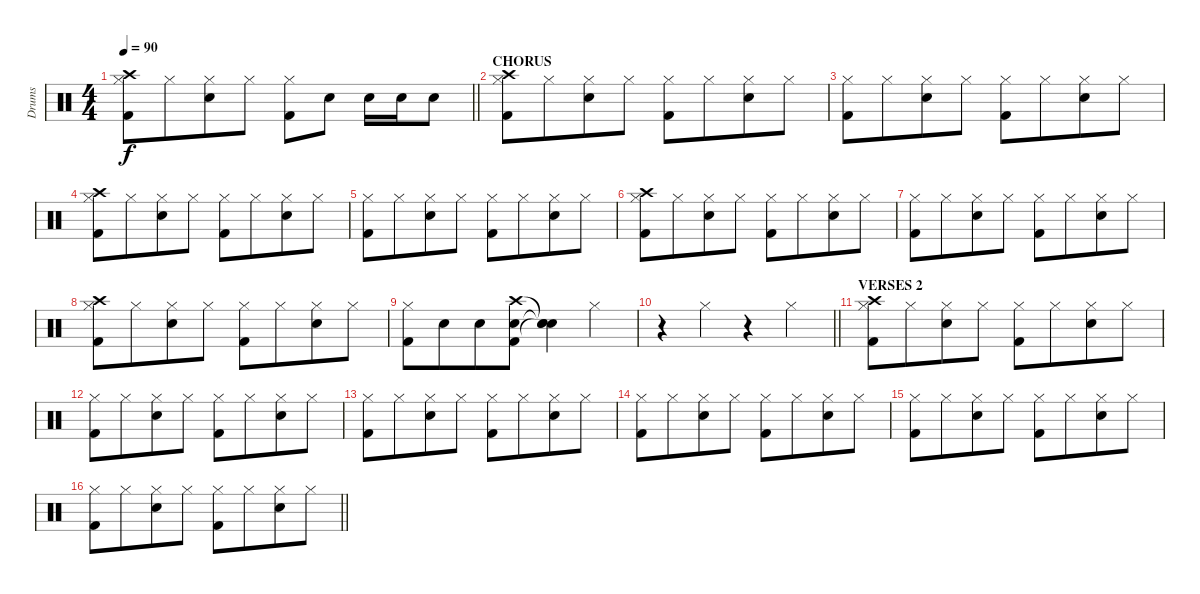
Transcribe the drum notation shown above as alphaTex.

\track ("Drums" "Drums") {instrument percussion}
\staff {score}
\articulation defaults
\ts (4 4)
\tempo 90
\clef neutral
\barLineRight lightlight
\ks c
("Crash high (hit)" "Hi-Hat (closed)" "Kick (hit) 2").8{dy f} "Hi-Hat (closed)".8{beam merge} ("Hi-Hat (closed)" "Electric Snare (hit)").8 "Hi-Hat (closed)".8 ("Hi-Hat (closed)" "Kick (hit) 2").8 "Electric Snare (hit)".8 "Electric Snare (hit)".16 "Electric Snare (hit)".16 "Electric Snare (hit)".8 |
\section ("" "CHORUS")
("Crash high (hit)" "Hi-Hat (closed)" "Kick (hit) 2").8 "Hi-Hat (closed)".8{beam merge} ("Hi-Hat (closed)" "Electric Snare (hit)").8 "Hi-Hat (closed)".8 ("Hi-Hat (closed)" "Kick (hit) 2").8 "Hi-Hat (closed)".8{beam merge} ("Hi-Hat (closed)" "Electric Snare (hit)").8 "Hi-Hat (closed)".8 |
("Hi-Hat (closed)" "Kick (hit) 2").8 "Hi-Hat (closed)".8{beam merge} ("Hi-Hat (closed)" "Electric Snare (hit)").8 "Hi-Hat (closed)".8 ("Hi-Hat (closed)" "Kick (hit) 2").8 "Hi-Hat (closed)".8{beam merge} ("Hi-Hat (closed)" "Electric Snare (hit)").8 "Hi-Hat (closed)".8 |
("Crash high (hit)" "Hi-Hat (closed)" "Kick (hit) 2").8 "Hi-Hat (closed)".8{beam merge} ("Hi-Hat (closed)" "Electric Snare (hit)").8 "Hi-Hat (closed)".8 ("Hi-Hat (closed)" "Kick (hit) 2").8 "Hi-Hat (closed)".8{beam merge} ("Hi-Hat (closed)" "Electric Snare (hit)").8 "Hi-Hat (closed)".8 |
("Hi-Hat (closed)" "Kick (hit) 2").8 "Hi-Hat (closed)".8{beam merge} ("Hi-Hat (closed)" "Electric Snare (hit)").8 "Hi-Hat (closed)".8 ("Hi-Hat (closed)" "Kick (hit) 2").8 "Hi-Hat (closed)".8{beam merge} ("Hi-Hat (closed)" "Electric Snare (hit)").8 "Hi-Hat (closed)".8 |
("Crash high (hit)" "Hi-Hat (closed)" "Kick (hit) 2").8 "Hi-Hat (closed)".8{beam merge} ("Hi-Hat (closed)" "Electric Snare (hit)").8 "Hi-Hat (closed)".8 ("Hi-Hat (closed)" "Kick (hit) 2").8 "Hi-Hat (closed)".8{beam merge} ("Hi-Hat (closed)" "Electric Snare (hit)").8 "Hi-Hat (closed)".8 |
("Hi-Hat (closed)" "Kick (hit) 2").8 "Hi-Hat (closed)".8{beam merge} ("Hi-Hat (closed)" "Electric Snare (hit)").8 "Hi-Hat (closed)".8 ("Hi-Hat (closed)" "Kick (hit) 2").8 "Hi-Hat (closed)".8{beam merge} ("Hi-Hat (closed)" "Electric Snare (hit)").8 "Hi-Hat (closed)".8 |
("Crash high (hit)" "Hi-Hat (closed)" "Kick (hit) 2").8 "Hi-Hat (closed)".8{beam merge} ("Hi-Hat (closed)" "Electric Snare (hit)").8 "Hi-Hat (closed)".8 ("Hi-Hat (closed)" "Kick (hit) 2").8 "Hi-Hat (closed)".8{beam merge} ("Hi-Hat (closed)" "Electric Snare (hit)").8 "Hi-Hat (closed)".8 |
("Hi-Hat (closed)" "Kick (hit) 2").8 "Electric Snare (hit)".8{beam merge} "Electric Snare (hit)".8 ("Crash high (hit)" "Electric Snare (hit)" "Kick (hit) 2").8 ("Snare (hit)"{t} "Snare (hit)"{t} "Snare (hit)"{t}).4 "Hi-Hat (closed)".4 |
\barLineRight lightlight
r.4 "Hi-Hat (closed)".4 r.4 "Hi-Hat (closed)".4 |
\section ("" "VERSES 2")
("Crash high (hit)" "Hi-Hat (closed)" "Kick (hit) 2").8 "Hi-Hat (closed)".8{beam merge} ("Hi-Hat (closed)" "Electric Snare (hit)").8 "Hi-Hat (closed)".8 ("Hi-Hat (closed)" "Kick (hit) 2").8 "Hi-Hat (closed)".8{beam merge} ("Hi-Hat (closed)" "Electric Snare (hit)").8 "Hi-Hat (closed)".8 |
("Hi-Hat (closed)" "Kick (hit) 2").8 "Hi-Hat (closed)".8{beam merge} ("Hi-Hat (closed)" "Electric Snare (hit)").8 "Hi-Hat (closed)".8 ("Hi-Hat (closed)" "Kick (hit) 2").8 "Hi-Hat (closed)".8{beam merge} ("Hi-Hat (closed)" "Electric Snare (hit)").8 "Hi-Hat (closed)".8 |
("Hi-Hat (closed)" "Kick (hit) 2").8 "Hi-Hat (closed)".8{beam merge} ("Hi-Hat (closed)" "Electric Snare (hit)").8 "Hi-Hat (closed)".8 ("Hi-Hat (closed)" "Kick (hit) 2").8 "Hi-Hat (closed)".8{beam merge} ("Hi-Hat (closed)" "Electric Snare (hit)").8 "Hi-Hat (closed)".8 |
("Hi-Hat (closed)" "Kick (hit) 2").8 "Hi-Hat (closed)".8{beam merge} ("Hi-Hat (closed)" "Electric Snare (hit)").8 "Hi-Hat (closed)".8 ("Hi-Hat (closed)" "Kick (hit) 2").8 "Hi-Hat (closed)".8{beam merge} ("Hi-Hat (closed)" "Electric Snare (hit)").8 "Hi-Hat (closed)".8 |
("Hi-Hat (closed)" "Kick (hit) 2").8 "Hi-Hat (closed)".8{beam merge} ("Hi-Hat (closed)" "Electric Snare (hit)").8 "Hi-Hat (closed)".8 ("Hi-Hat (closed)" "Kick (hit) 2").8 "Hi-Hat (closed)".8{beam merge} ("Hi-Hat (closed)" "Electric Snare (hit)").8 "Hi-Hat (closed)".8 |
\barLineRight lightlight
("Hi-Hat (closed)" "Kick (hit) 2").8 "Hi-Hat (closed)".8{beam merge} ("Hi-Hat (closed)" "Electric Snare (hit)").8 "Hi-Hat (closed)".8 ("Hi-Hat (closed)" "Kick (hit) 2").8 "Hi-Hat (closed)".8{beam merge} ("Hi-Hat (closed)" "Electric Snare (hit)").8 "Hi-Hat (closed)".8
